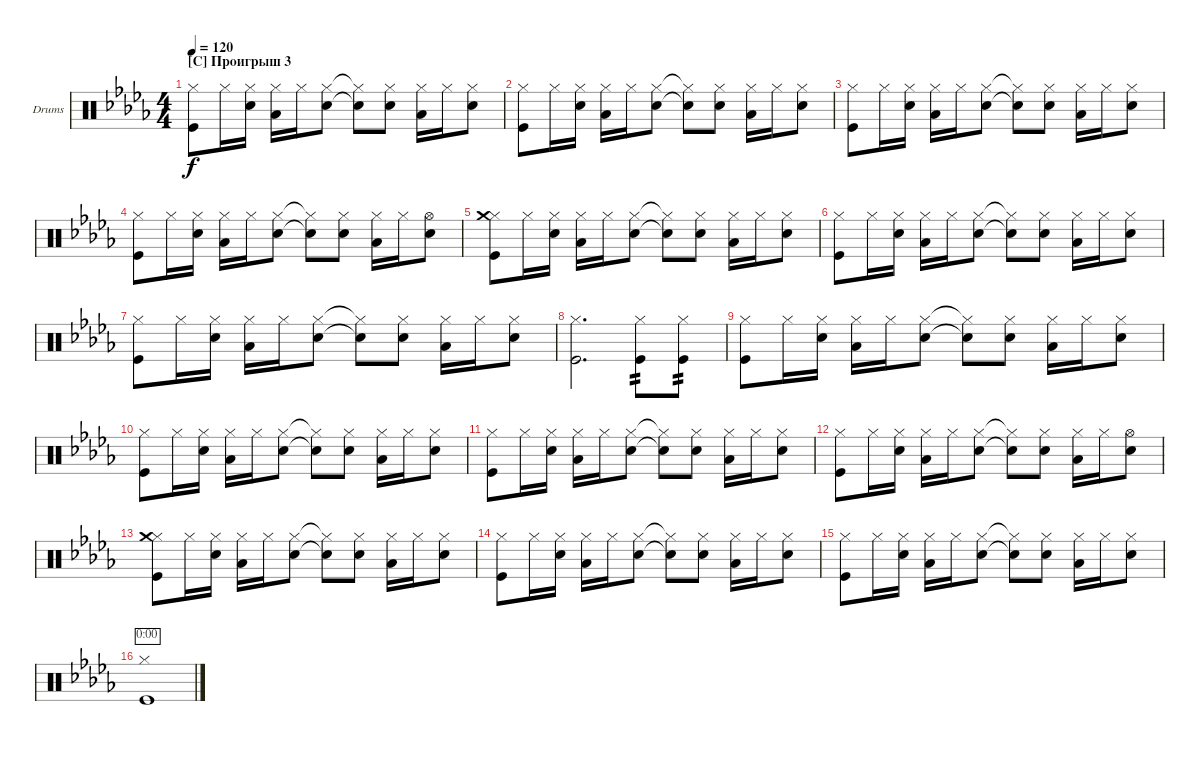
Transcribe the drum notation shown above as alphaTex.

\defaultSystemsLayout 4
\bracketExtendMode groupsimilarinstruments
\firstSystemTrackNameOrientation horizontal
\otherSystemsTrackNameOrientation horizontal
\track ("Ударные" "Drums") {instrument percussion}
\staff {score}
\articulation defaults
\ts (4 4)
\section ("C" "Проигрыш 3")
\tempo 120
\clef neutral
\ks db
("Kick (hit)" "Hi-Hat (closed)").8{dy f} "Hi-Hat (closed)".16 ("Hi-Hat (closed)" "Snare (hit) 2").16 ("Hi-Hat (closed)" "Low Tom (hit)").16 "Hi-Hat (closed)".16 ("Hi-Hat (closed)" "Snare (hit) 2").8 ("Hi-Hat (closed)"{t} "Snare (hit) 2"{t}).8 ("Hi-Hat (closed)" "Snare (hit) 2").8 ("Hi-Hat (closed)" "Low Tom (hit)").16 "Hi-Hat (closed)".16 ("Hi-Hat (closed)" "Snare (hit) 2").8 |
("Kick (hit)" "Hi-Hat (closed)").8 "Hi-Hat (closed)".16 ("Hi-Hat (closed)" "Snare (hit) 2").16 ("Hi-Hat (closed)" "Low Tom (hit)").16 "Hi-Hat (closed)".16 ("Hi-Hat (closed)" "Snare (hit) 2").8 ("Hi-Hat (closed)"{t} "Snare (hit) 2"{t}).8 ("Hi-Hat (closed)" "Snare (hit) 2").8 ("Hi-Hat (closed)" "Low Tom (hit)").16 "Hi-Hat (closed)".16 ("Hi-Hat (closed)" "Snare (hit) 2").8 |
("Kick (hit)" "Hi-Hat (closed)").8 "Hi-Hat (closed)".16 ("Hi-Hat (closed)" "Snare (hit) 2").16 ("Hi-Hat (closed)" "Low Tom (hit)").16 "Hi-Hat (closed)".16 ("Hi-Hat (closed)" "Snare (hit) 2").8 ("Hi-Hat (closed)"{t} "Snare (hit) 2"{t}).8 ("Hi-Hat (closed)" "Snare (hit) 2").8 ("Hi-Hat (closed)" "Low Tom (hit)").16 "Hi-Hat (closed)".16 ("Hi-Hat (closed)" "Snare (hit) 2").8 |
("Kick (hit)" "Hi-Hat (closed)").8 "Hi-Hat (closed)".16 ("Hi-Hat (closed)" "Snare (hit) 2").16 ("Hi-Hat (closed)" "Low Tom (hit)").16 "Hi-Hat (closed)".16 ("Hi-Hat (closed)" "Snare (hit) 2").8 ("Hi-Hat (closed)"{t} "Snare (hit) 2"{t}).8 ("Hi-Hat (closed)" "Snare (hit) 2").8 ("Hi-Hat (closed)" "Low Tom (hit)").16 "Hi-Hat (closed)".16 ("Hi-Hat (open)" "Snare (hit) 2").8 |
("Kick (hit)" "Hi-Hat (closed)" "Crash medium (hit)").8 "Hi-Hat (closed)".16 ("Hi-Hat (closed)" "Snare (hit) 2").16 ("Hi-Hat (closed)" "Low Tom (hit)").16 "Hi-Hat (closed)".16 ("Hi-Hat (closed)" "Snare (hit) 2").8 ("Hi-Hat (closed)"{t} "Snare (hit) 2"{t}).8 ("Hi-Hat (closed)" "Snare (hit) 2").8 ("Hi-Hat (closed)" "Low Tom (hit)").16 "Hi-Hat (closed)".16 ("Hi-Hat (closed)" "Snare (hit) 2").8 |
("Kick (hit)" "Hi-Hat (closed)").8 "Hi-Hat (closed)".16 ("Hi-Hat (closed)" "Snare (hit) 2").16 ("Hi-Hat (closed)" "Low Tom (hit)").16 "Hi-Hat (closed)".16 ("Hi-Hat (closed)" "Snare (hit) 2").8 ("Hi-Hat (closed)"{t} "Snare (hit) 2"{t}).8 ("Hi-Hat (closed)" "Snare (hit) 2").8 ("Hi-Hat (closed)" "Low Tom (hit)").16 "Hi-Hat (closed)".16 ("Hi-Hat (closed)" "Snare (hit) 2").8 |
("Kick (hit)" "Hi-Hat (closed)").8 "Hi-Hat (closed)".16 ("Hi-Hat (closed)" "Snare (hit) 2").16 ("Hi-Hat (closed)" "Low Tom (hit)").16 "Hi-Hat (closed)".16 ("Hi-Hat (closed)" "Snare (hit) 2").8 ("Hi-Hat (closed)"{t} "Snare (hit) 2"{t}).8 ("Hi-Hat (closed)" "Snare (hit) 2").8 ("Hi-Hat (closed)" "Low Tom (hit)").16 "Hi-Hat (closed)".16 ("Hi-Hat (closed)" "Snare (hit) 2").8 |
("Kick (hit)" "Hi-Hat (closed)").2{d} ("Hi-Hat (closed)" "Kick (hit)").8{tp 2} ("Hi-Hat (closed)" "Kick (hit)").8{tp 2} |
("Kick (hit)" "Hi-Hat (closed)").8 "Hi-Hat (closed)".16 ("Hi-Hat (closed)" "Snare (hit) 2").16 ("Hi-Hat (closed)" "Low Tom (hit)").16 "Hi-Hat (closed)".16 ("Hi-Hat (closed)" "Snare (hit) 2").8 ("Hi-Hat (closed)"{t} "Snare (hit) 2"{t}).8 ("Hi-Hat (closed)" "Snare (hit) 2").8 ("Hi-Hat (closed)" "Low Tom (hit)").16 "Hi-Hat (closed)".16 ("Hi-Hat (closed)" "Snare (hit) 2").8 |
("Kick (hit)" "Hi-Hat (closed)").8 "Hi-Hat (closed)".16 ("Hi-Hat (closed)" "Snare (hit) 2").16 ("Hi-Hat (closed)" "Low Tom (hit)").16 "Hi-Hat (closed)".16 ("Hi-Hat (closed)" "Snare (hit) 2").8 ("Hi-Hat (closed)"{t} "Snare (hit) 2"{t}).8 ("Hi-Hat (closed)" "Snare (hit) 2").8 ("Hi-Hat (closed)" "Low Tom (hit)").16 "Hi-Hat (closed)".16 ("Hi-Hat (closed)" "Snare (hit) 2").8 |
("Kick (hit)" "Hi-Hat (closed)").8 "Hi-Hat (closed)".16 ("Hi-Hat (closed)" "Snare (hit) 2").16 ("Hi-Hat (closed)" "Low Tom (hit)").16 "Hi-Hat (closed)".16 ("Hi-Hat (closed)" "Snare (hit) 2").8 ("Hi-Hat (closed)"{t} "Snare (hit) 2"{t}).8 ("Hi-Hat (closed)" "Snare (hit) 2").8 ("Hi-Hat (closed)" "Low Tom (hit)").16 "Hi-Hat (closed)".16 ("Hi-Hat (closed)" "Snare (hit) 2").8 |
("Kick (hit)" "Hi-Hat (closed)").8 "Hi-Hat (closed)".16 ("Hi-Hat (closed)" "Snare (hit) 2").16 ("Hi-Hat (closed)" "Low Tom (hit)").16 "Hi-Hat (closed)".16 ("Hi-Hat (closed)" "Snare (hit) 2").8 ("Hi-Hat (closed)"{t} "Snare (hit) 2"{t}).8 ("Hi-Hat (closed)" "Snare (hit) 2").8 ("Hi-Hat (closed)" "Low Tom (hit)").16 "Hi-Hat (closed)".16 ("Hi-Hat (open)" "Snare (hit) 2").8 |
("Kick (hit)" "Hi-Hat (closed)" "Crash medium (hit)").8 "Hi-Hat (closed)".16 ("Hi-Hat (closed)" "Snare (hit) 2").16 ("Hi-Hat (closed)" "Low Tom (hit)").16 "Hi-Hat (closed)".16 ("Hi-Hat (closed)" "Snare (hit) 2").8 ("Hi-Hat (closed)"{t} "Snare (hit) 2"{t}).8 ("Hi-Hat (closed)" "Snare (hit) 2").8 ("Hi-Hat (closed)" "Low Tom (hit)").16 "Hi-Hat (closed)".16 ("Hi-Hat (closed)" "Snare (hit) 2").8 |
("Kick (hit)" "Hi-Hat (closed)").8 "Hi-Hat (closed)".16 ("Hi-Hat (closed)" "Snare (hit) 2").16 ("Hi-Hat (closed)" "Low Tom (hit)").16 "Hi-Hat (closed)".16 ("Hi-Hat (closed)" "Snare (hit) 2").8 ("Hi-Hat (closed)"{t} "Snare (hit) 2"{t}).8 ("Hi-Hat (closed)" "Snare (hit) 2").8 ("Hi-Hat (closed)" "Low Tom (hit)").16 "Hi-Hat (closed)".16 ("Hi-Hat (closed)" "Snare (hit) 2").8 |
("Kick (hit)" "Hi-Hat (closed)").8 "Hi-Hat (closed)".16 ("Hi-Hat (closed)" "Snare (hit) 2").16 ("Hi-Hat (closed)" "Low Tom (hit)").16 "Hi-Hat (closed)".16 ("Hi-Hat (closed)" "Snare (hit) 2").8 ("Hi-Hat (closed)"{t} "Snare (hit) 2"{t}).8 ("Hi-Hat (closed)" "Snare (hit) 2").8 ("Hi-Hat (closed)" "Low Tom (hit)").16 "Hi-Hat (closed)".16 ("Hi-Hat (closed)" "Snare (hit) 2").8 |
("Kick (hit)" "Hi-Hat (closed)").1{timer}
